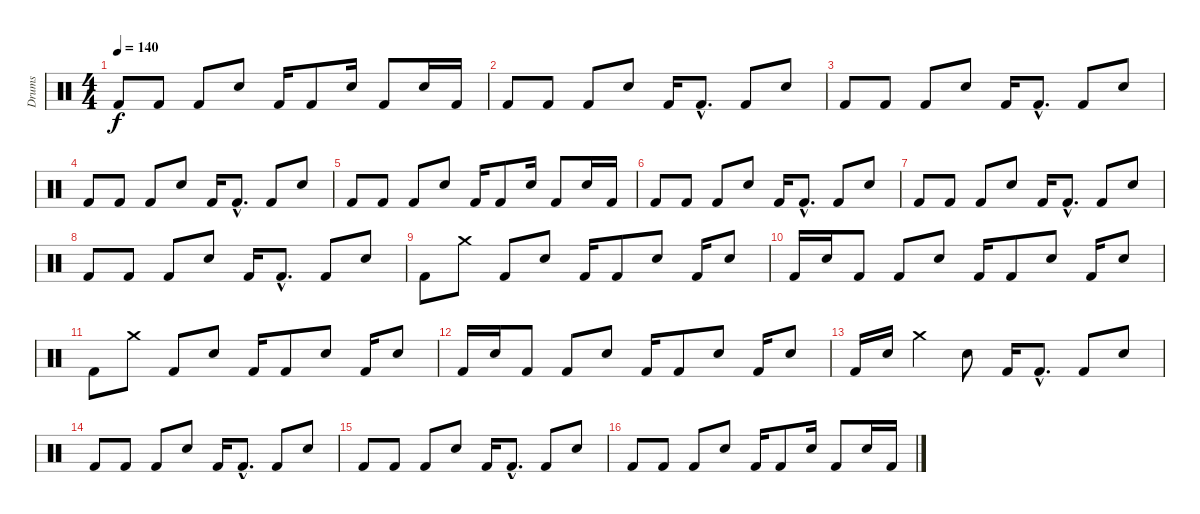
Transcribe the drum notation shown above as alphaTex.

\track ("Drums" "Drums") {instrument percussion}
\staff {score}
\articulation defaults
\ts (4 4)
\tempo 140
\clef neutral
\ks c "Kick (hit) 2".8{dy f} "Kick (hit) 2".8 "Kick (hit) 2".8 "Snare (hit) 2".8 "Kick (hit) 2".16 "Kick (hit) 2".8 "Snare (hit) 2".16 "Kick (hit) 2".8 "Snare (hit) 2".16 "Kick (hit) 2".16
|
"Kick (hit) 2".8 "Kick (hit) 2".8 "Kick (hit) 2".8 "Snare (hit) 2".8 "Kick (hit) 2".16 "Kick (hit) 2"{hac}.8{d} "Kick (hit) 2".8 "Snare (hit) 2".8 |
"Kick (hit) 2".8 "Kick (hit) 2".8 "Kick (hit) 2".8 "Snare (hit) 2".8 "Kick (hit) 2".16 "Kick (hit) 2"{hac}.8{d} "Kick (hit) 2".8 "Snare (hit) 2".8 |
"Kick (hit) 2".8 "Kick (hit) 2".8 "Kick (hit) 2".8 "Snare (hit) 2".8 "Kick (hit) 2".16 "Kick (hit) 2"{hac}.8{d} "Kick (hit) 2".8 "Snare (hit) 2".8 |
"Kick (hit) 2".8 "Kick (hit) 2".8 "Kick (hit) 2".8 "Snare (hit) 2".8 "Kick (hit) 2".16 "Kick (hit) 2".8 "Snare (hit) 2".16 "Kick (hit) 2".8 "Snare (hit) 2".16 "Kick (hit) 2".16 |
"Kick (hit) 2".8 "Kick (hit) 2".8 "Kick (hit) 2".8 "Snare (hit) 2".8 "Kick (hit) 2".16 "Kick (hit) 2"{hac}.8{d} "Kick (hit) 2".8 "Snare (hit) 2".8 |
"Kick (hit) 2".8 "Kick (hit) 2".8 "Kick (hit) 2".8 "Snare (hit) 2".8 "Kick (hit) 2".16 "Kick (hit) 2"{hac}.8{d} "Kick (hit) 2".8 "Snare (hit) 2".8 |
"Kick (hit) 2".8 "Kick (hit) 2".8 "Kick (hit) 2".8 "Snare (hit) 2".8 "Kick (hit) 2".16 "Kick (hit) 2"{hac}.8{d} "Kick (hit) 2".8 "Snare (hit) 2".8 |
"Kick (hit) 2".8 "Crash medium (hit)".8 "Kick (hit) 2".8 "Snare (hit) 2".8 "Kick (hit) 2".16 "Kick (hit) 2".8 "Snare (hit) 2".8 "Kick (hit) 2".16 "Snare (hit) 2".8 |
"Kick (hit) 2".16 "Snare (hit) 2".16 "Kick (hit) 2".8 "Kick (hit) 2".8 "Snare (hit) 2".8 "Kick (hit) 2".16 "Kick (hit) 2".8 "Snare (hit) 2".8 "Kick (hit) 2".16 "Snare (hit) 2".8 |
"Kick (hit) 2".8 "Crash medium (hit)".8 "Kick (hit) 2".8 "Snare (hit) 2".8 "Kick (hit) 2".16 "Kick (hit) 2".8 "Snare (hit) 2".8 "Kick (hit) 2".16 "Snare (hit) 2".8 |
"Kick (hit) 2".16 "Snare (hit) 2".16 "Kick (hit) 2".8 "Kick (hit) 2".8 "Snare (hit) 2".8 "Kick (hit) 2".16 "Kick (hit) 2".8 "Snare (hit) 2".8 "Kick (hit) 2".16 "Snare (hit) 2".8 |
"Kick (hit) 2".16 "Snare (hit) 2".16 "Crash medium (hit)".4 "Snare (hit) 2".8 "Kick (hit) 2".16 "Kick (hit) 2"{hac}.8{d} "Kick (hit) 2".8 "Snare (hit) 2".8 |
"Kick (hit) 2".8 "Kick (hit) 2".8 "Kick (hit) 2".8 "Snare (hit) 2".8 "Kick (hit) 2".16 "Kick (hit) 2"{hac}.8{d} "Kick (hit) 2".8 "Snare (hit) 2".8 |
"Kick (hit) 2".8 "Kick (hit) 2".8 "Kick (hit) 2".8 "Snare (hit) 2".8 "Kick (hit) 2".16 "Kick (hit) 2"{hac}.8{d} "Kick (hit) 2".8 "Snare (hit) 2".8 |
"Kick (hit) 2".8 "Kick (hit) 2".8 "Kick (hit) 2".8 "Snare (hit) 2".8 "Kick (hit) 2".16 "Kick (hit) 2".8 "Snare (hit) 2".16 "Kick (hit) 2".8 "Snare (hit) 2".16 "Kick (hit) 2".16
